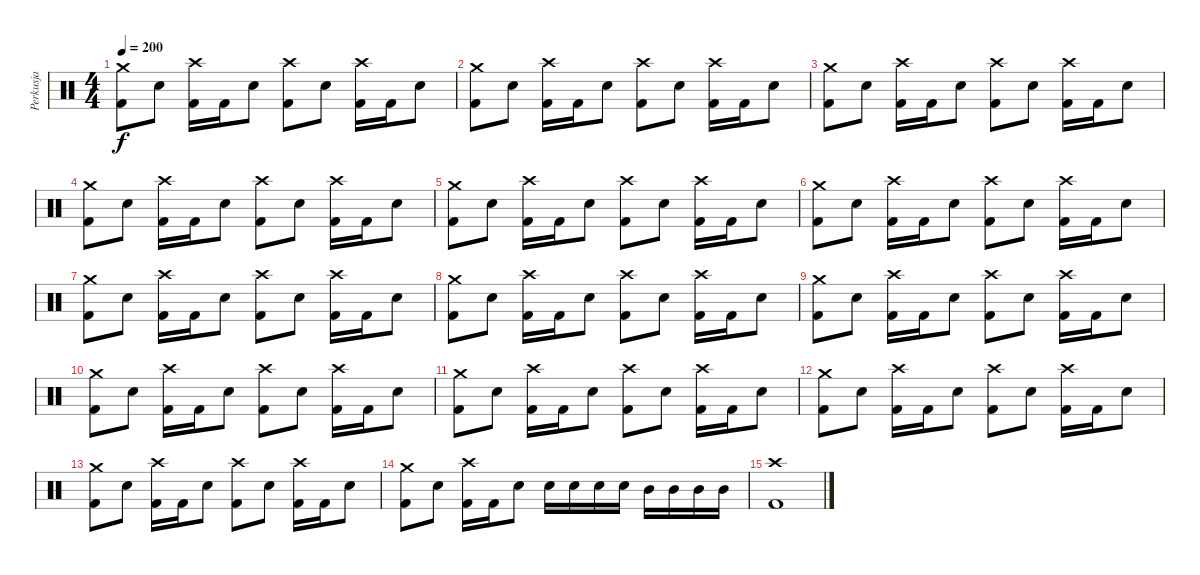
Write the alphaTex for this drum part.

\track ("Perkusja" "Perkusja") {instrument percussion}
\staff {score}
\articulation defaults
\ts (4 4)
\tempo 200
\clef neutral
\ks c
("Crash medium (hit)" "Kick (hit) 2").8{dy f} "Snare (hit) 2".8 ("Crash high (hit)" "Kick (hit) 2").16 "Kick (hit) 2".16 "Snare (hit) 2".8 ("Crash high (hit)" "Kick (hit) 2").8 "Snare (hit) 2".8 ("Crash high (hit)" "Kick (hit) 2").16 "Kick (hit) 2".16 "Snare (hit) 2".8 |
("Crash medium (hit)" "Kick (hit) 2").8 "Snare (hit) 2".8 ("Crash high (hit)" "Kick (hit) 2").16 "Kick (hit) 2".16 "Snare (hit) 2".8 ("Crash high (hit)" "Kick (hit) 2").8 "Snare (hit) 2".8 ("Crash high (hit)" "Kick (hit) 2").16 "Kick (hit) 2".16 "Snare (hit) 2".8 |
("Crash medium (hit)" "Kick (hit) 2").8 "Snare (hit) 2".8 ("Crash high (hit)" "Kick (hit) 2").16 "Kick (hit) 2".16 "Snare (hit) 2".8 ("Crash high (hit)" "Kick (hit) 2").8 "Snare (hit) 2".8 ("Crash high (hit)" "Kick (hit) 2").16 "Kick (hit) 2".16 "Snare (hit) 2".8 |
("Crash medium (hit)" "Kick (hit) 2").8 "Snare (hit) 2".8 ("Crash high (hit)" "Kick (hit) 2").16 "Kick (hit) 2".16 "Snare (hit) 2".8 ("Crash high (hit)" "Kick (hit) 2").8 "Snare (hit) 2".8 ("Crash high (hit)" "Kick (hit) 2").16 "Kick (hit) 2".16 "Snare (hit) 2".8 |
("Crash medium (hit)" "Kick (hit) 2").8 "Snare (hit) 2".8 ("Crash high (hit)" "Kick (hit) 2").16 "Kick (hit) 2".16 "Snare (hit) 2".8 ("Crash high (hit)" "Kick (hit) 2").8 "Snare (hit) 2".8 ("Crash high (hit)" "Kick (hit) 2").16 "Kick (hit) 2".16 "Snare (hit) 2".8 |
("Crash medium (hit)" "Kick (hit) 2").8 "Snare (hit) 2".8 ("Crash high (hit)" "Kick (hit) 2").16 "Kick (hit) 2".16 "Snare (hit) 2".8 ("Crash high (hit)" "Kick (hit) 2").8 "Snare (hit) 2".8 ("Crash high (hit)" "Kick (hit) 2").16 "Kick (hit) 2".16 "Snare (hit) 2".8 |
("Crash medium (hit)" "Kick (hit) 2").8 "Snare (hit) 2".8 ("Crash high (hit)" "Kick (hit) 2").16 "Kick (hit) 2".16 "Snare (hit) 2".8 ("Crash high (hit)" "Kick (hit) 2").8 "Snare (hit) 2".8 ("Crash high (hit)" "Kick (hit) 2").16 "Kick (hit) 2".16 "Snare (hit) 2".8 |
("Crash medium (hit)" "Kick (hit) 2").8 "Snare (hit) 2".8 ("Crash high (hit)" "Kick (hit) 2").16 "Kick (hit) 2".16 "Snare (hit) 2".8 ("Crash high (hit)" "Kick (hit) 2").8 "Snare (hit) 2".8 ("Crash high (hit)" "Kick (hit) 2").16 "Kick (hit) 2".16 "Snare (hit) 2".8 |
("Crash medium (hit)" "Kick (hit) 2").8 "Snare (hit) 2".8 ("Crash high (hit)" "Kick (hit) 2").16 "Kick (hit) 2".16 "Snare (hit) 2".8 ("Crash high (hit)" "Kick (hit) 2").8 "Snare (hit) 2".8 ("Crash high (hit)" "Kick (hit) 2").16 "Kick (hit) 2".16 "Snare (hit) 2".8 |
("Crash medium (hit)" "Kick (hit) 2").8 "Snare (hit) 2".8 ("Crash high (hit)" "Kick (hit) 2").16 "Kick (hit) 2".16 "Snare (hit) 2".8 ("Crash high (hit)" "Kick (hit) 2").8 "Snare (hit) 2".8 ("Crash high (hit)" "Kick (hit) 2").16 "Kick (hit) 2".16 "Snare (hit) 2".8 |
("Crash medium (hit)" "Kick (hit) 2").8 "Snare (hit) 2".8 ("Crash high (hit)" "Kick (hit) 2").16 "Kick (hit) 2".16 "Snare (hit) 2".8 ("Crash high (hit)" "Kick (hit) 2").8 "Snare (hit) 2".8 ("Crash high (hit)" "Kick (hit) 2").16 "Kick (hit) 2".16 "Snare (hit) 2".8 |
("Crash medium (hit)" "Kick (hit) 2").8 "Snare (hit) 2".8 ("Crash high (hit)" "Kick (hit) 2").16 "Kick (hit) 2".16 "Snare (hit) 2".8 ("Crash high (hit)" "Kick (hit) 2").8 "Snare (hit) 2".8 ("Crash high (hit)" "Kick (hit) 2").16 "Kick (hit) 2".16 "Snare (hit) 2".8 |
("Crash medium (hit)" "Kick (hit) 2").8 "Snare (hit) 2".8 ("Crash high (hit)" "Kick (hit) 2").16 "Kick (hit) 2".16 "Snare (hit) 2".8 ("Crash high (hit)" "Kick (hit) 2").8 "Snare (hit) 2".8 ("Crash high (hit)" "Kick (hit) 2").16 "Kick (hit) 2".16 "Snare (hit) 2".8 |
("Crash medium (hit)" "Kick (hit) 2").8 "Snare (hit) 2".8 ("Crash high (hit)" "Kick (hit) 2").16 "Kick (hit) 2".16 "Snare (hit) 2".8 "Snare (hit) 2".16 "Snare (hit) 2".16 "Snare (hit) 2".16 "Snare (hit) 2".16 "Mid Tom (hit)".16 "Mid Tom (hit)".16 "Mid Tom (hit)".16 "Mid Tom (hit)".16 |
("Crash high (hit)" "Kick (hit) 2").1
